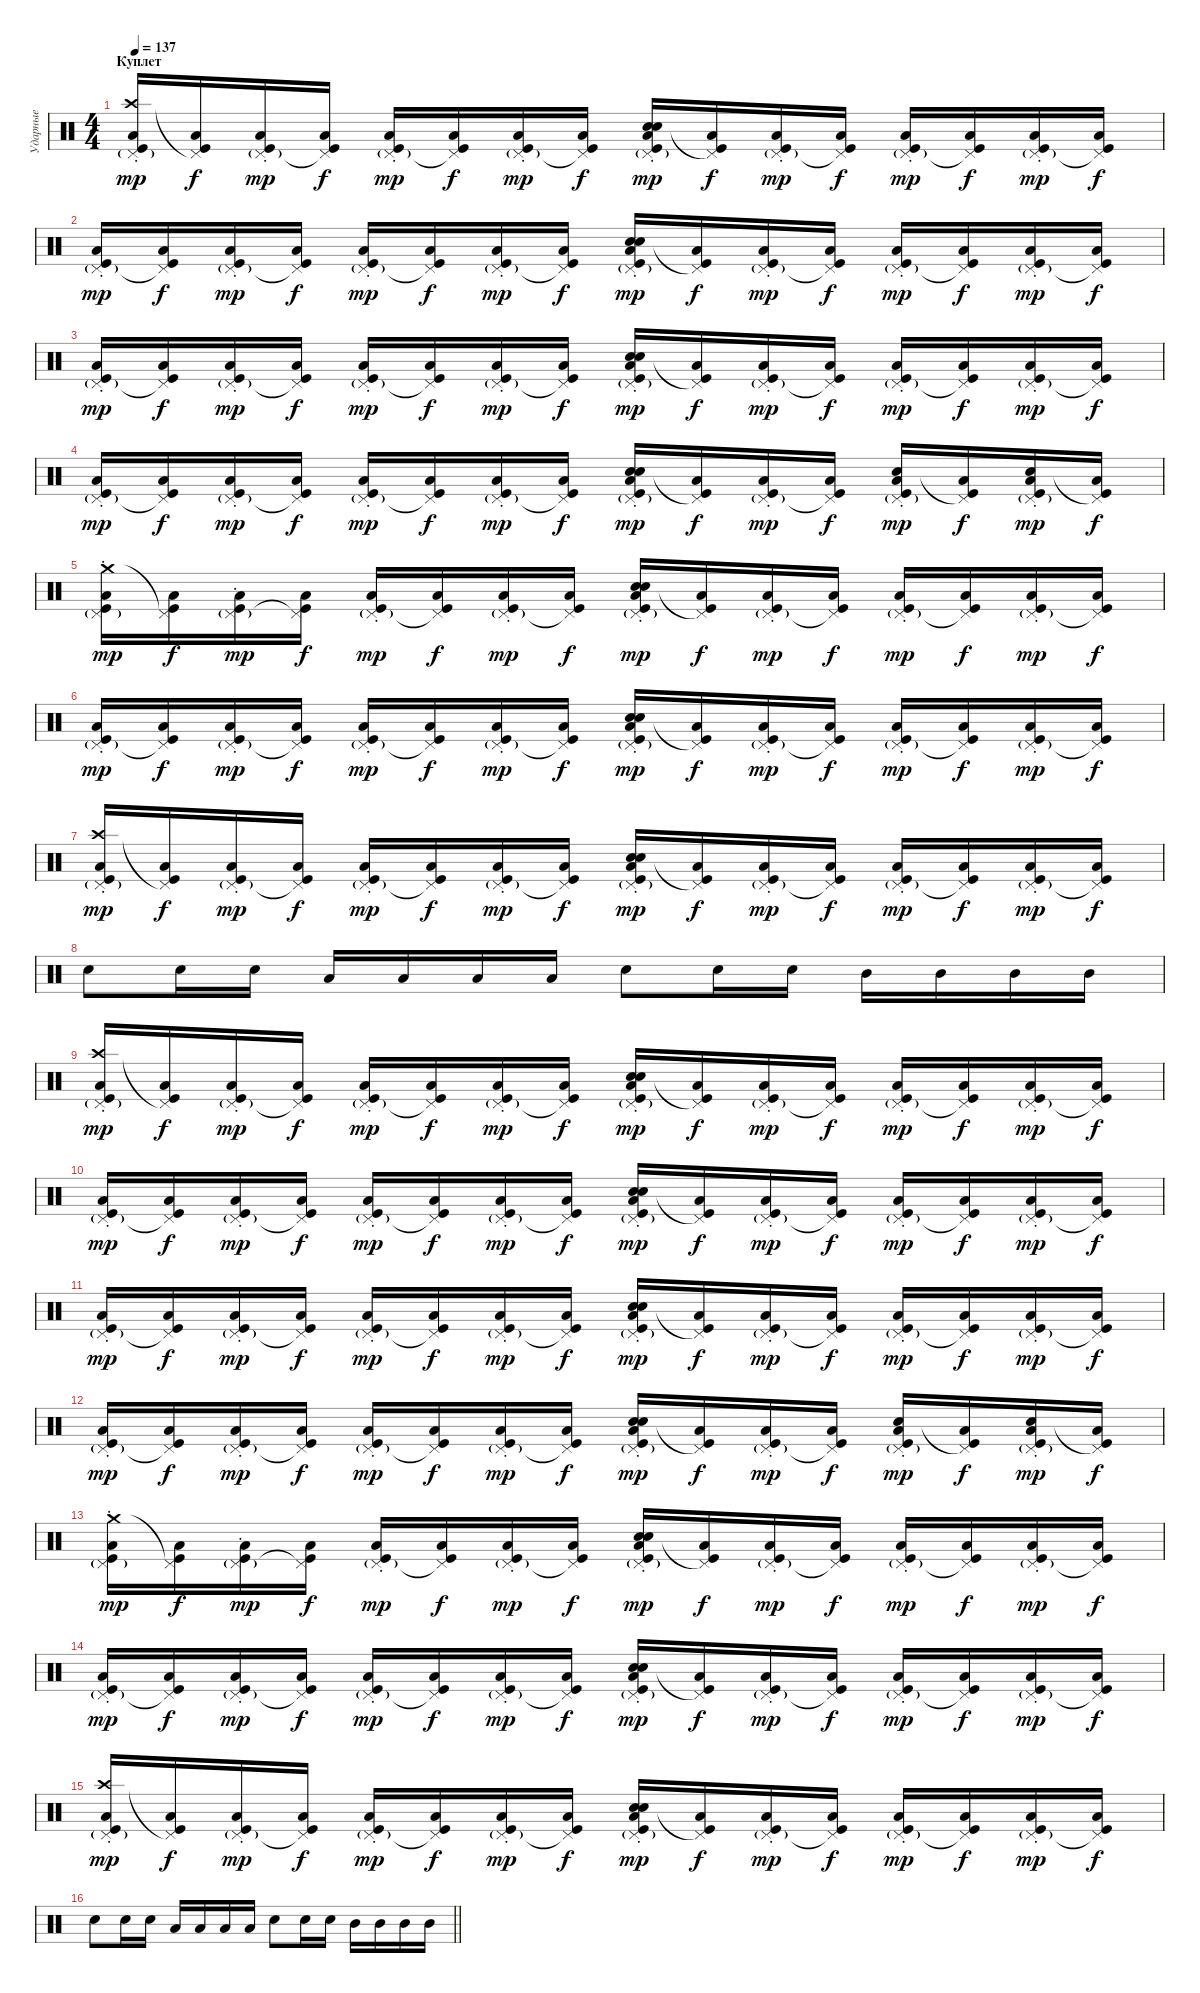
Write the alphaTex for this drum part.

\track ("Ударные" "Ударные") {instrument percussion}
\staff {score}
\articulation defaults
\ts (4 4)
\section ("" "Куплет")
\tempo 137
\clef neutral
\ks c
("Kick (hit)" "Low Tom (hit)" "Crash high (hit)" "Pedal Hi-Hat (hit)"{g st}).16{dy mp} ("Kick (hit)" "Low Tom (hit)" "Pedal Hi-Hat (hit)"{t}).16{dy f} ("Kick (hit)" "Low Tom (hit)" "Pedal Hi-Hat (hit)"{g st}).16{dy mp} ("Kick (hit)" "Low Tom (hit)" "Pedal Hi-Hat (hit)"{t}).16{dy f} ("Kick (hit)" "Low Tom (hit)" "Pedal Hi-Hat (hit)"{g st}).16{dy mp} ("Kick (hit)" "Low Tom (hit)" "Pedal Hi-Hat (hit)"{t}).16{dy f} ("Kick (hit)" "Low Tom (hit)" "Pedal Hi-Hat (hit)"{g st}).16{dy mp} ("Kick (hit)" "Low Tom (hit)" "Pedal Hi-Hat (hit)"{t}).16{dy f} ("Kick (hit)" "Low Tom (hit)" "Electric Snare (hit)" "Snare (hit) 2" "Pedal Hi-Hat (hit)"{g st}).16{dy mp} ("Kick (hit)" "Low Tom (hit)" "Pedal Hi-Hat (hit)"{t}).16{dy f} ("Kick (hit)" "Low Tom (hit)" "Pedal Hi-Hat (hit)"{g st}).16{dy mp} ("Kick (hit)" "Low Tom (hit)" "Pedal Hi-Hat (hit)"{t}).16{dy f} ("Kick (hit)" "Low Tom (hit)" "Pedal Hi-Hat (hit)"{g st}).16{dy mp} ("Kick (hit)" "Low Tom (hit)" "Pedal Hi-Hat (hit)"{t}).16{dy f} ("Kick (hit)" "Low Tom (hit)" "Pedal Hi-Hat (hit)"{g st}).16{dy mp} ("Kick (hit)" "Low Tom (hit)" "Pedal Hi-Hat (hit)"{t}).16{dy f} |
("Kick (hit)" "Low Tom (hit)" "Pedal Hi-Hat (hit)"{g st}).16{dy mp} ("Kick (hit)" "Low Tom (hit)" "Pedal Hi-Hat (hit)"{t}).16{dy f} ("Kick (hit)" "Low Tom (hit)" "Pedal Hi-Hat (hit)"{g st}).16{dy mp} ("Kick (hit)" "Low Tom (hit)" "Pedal Hi-Hat (hit)"{t}).16{dy f} ("Kick (hit)" "Low Tom (hit)" "Pedal Hi-Hat (hit)"{g st}).16{dy mp} ("Kick (hit)" "Low Tom (hit)" "Pedal Hi-Hat (hit)"{t}).16{dy f} ("Kick (hit)" "Low Tom (hit)" "Pedal Hi-Hat (hit)"{g st}).16{dy mp} ("Kick (hit)" "Low Tom (hit)" "Pedal Hi-Hat (hit)"{t}).16{dy f} ("Kick (hit)" "Low Tom (hit)" "Electric Snare (hit)" "Snare (hit) 2" "Pedal Hi-Hat (hit)"{g st}).16{dy mp} ("Kick (hit)" "Low Tom (hit)" "Pedal Hi-Hat (hit)"{t}).16{dy f} ("Kick (hit)" "Low Tom (hit)" "Pedal Hi-Hat (hit)"{g st}).16{dy mp} ("Kick (hit)" "Low Tom (hit)" "Pedal Hi-Hat (hit)"{t}).16{dy f} ("Kick (hit)" "Low Tom (hit)" "Pedal Hi-Hat (hit)"{g st}).16{dy mp} ("Kick (hit)" "Low Tom (hit)" "Pedal Hi-Hat (hit)"{t}).16{dy f} ("Kick (hit)" "Low Tom (hit)" "Pedal Hi-Hat (hit)"{g st}).16{dy mp} ("Kick (hit)" "Low Tom (hit)" "Pedal Hi-Hat (hit)"{t}).16{dy f} |
("Kick (hit)" "Low Tom (hit)" "Pedal Hi-Hat (hit)"{g st}).16{dy mp} ("Kick (hit)" "Low Tom (hit)" "Pedal Hi-Hat (hit)"{t}).16{dy f} ("Kick (hit)" "Low Tom (hit)" "Pedal Hi-Hat (hit)"{g st}).16{dy mp} ("Kick (hit)" "Low Tom (hit)" "Pedal Hi-Hat (hit)"{t}).16{dy f} ("Kick (hit)" "Low Tom (hit)" "Pedal Hi-Hat (hit)"{g st}).16{dy mp} ("Kick (hit)" "Low Tom (hit)" "Pedal Hi-Hat (hit)"{t}).16{dy f} ("Kick (hit)" "Low Tom (hit)" "Pedal Hi-Hat (hit)"{g st}).16{dy mp} ("Kick (hit)" "Low Tom (hit)" "Pedal Hi-Hat (hit)"{t}).16{dy f} ("Kick (hit)" "Low Tom (hit)" "Electric Snare (hit)" "Snare (hit) 2" "Pedal Hi-Hat (hit)"{g st}).16{dy mp} ("Kick (hit)" "Low Tom (hit)" "Pedal Hi-Hat (hit)"{t}).16{dy f} ("Kick (hit)" "Low Tom (hit)" "Pedal Hi-Hat (hit)"{g st}).16{dy mp} ("Kick (hit)" "Low Tom (hit)" "Pedal Hi-Hat (hit)"{t}).16{dy f} ("Kick (hit)" "Low Tom (hit)" "Pedal Hi-Hat (hit)"{g st}).16{dy mp} ("Kick (hit)" "Low Tom (hit)" "Pedal Hi-Hat (hit)"{t}).16{dy f} ("Kick (hit)" "Low Tom (hit)" "Pedal Hi-Hat (hit)"{g st}).16{dy mp} ("Kick (hit)" "Low Tom (hit)" "Pedal Hi-Hat (hit)"{t}).16{dy f} |
("Kick (hit)" "Low Tom (hit)" "Pedal Hi-Hat (hit)"{g st}).16{dy mp} ("Kick (hit)" "Low Tom (hit)" "Pedal Hi-Hat (hit)"{t}).16{dy f} ("Kick (hit)" "Low Tom (hit)" "Pedal Hi-Hat (hit)"{g st}).16{dy mp} ("Kick (hit)" "Low Tom (hit)" "Pedal Hi-Hat (hit)"{t}).16{dy f} ("Kick (hit)" "Low Tom (hit)" "Pedal Hi-Hat (hit)"{g st}).16{dy mp} ("Kick (hit)" "Low Tom (hit)" "Pedal Hi-Hat (hit)"{t}).16{dy f} ("Kick (hit)" "Low Tom (hit)" "Pedal Hi-Hat (hit)"{g st}).16{dy mp} ("Kick (hit)" "Low Tom (hit)" "Pedal Hi-Hat (hit)"{t}).16{dy f} ("Kick (hit)" "Low Tom (hit)" "Electric Snare (hit)" "Snare (hit) 2" "Pedal Hi-Hat (hit)"{g st}).16{dy mp} ("Kick (hit)" "Low Tom (hit)" "Pedal Hi-Hat (hit)"{t}).16{dy f} ("Kick (hit)" "Low Tom (hit)" "Pedal Hi-Hat (hit)"{g st}).16{dy mp} ("Kick (hit)" "Low Tom (hit)" "Pedal Hi-Hat (hit)"{t}).16{dy f} ("Kick (hit)" "Low Tom (hit)" "Electric Snare (hit)" "Pedal Hi-Hat (hit)"{g st}).16{dy mp} ("Kick (hit)" "Low Tom (hit)" "Pedal Hi-Hat (hit)"{t}).16{dy f} ("Kick (hit)" "Low Tom (hit)" "Electric Snare (hit)" "Pedal Hi-Hat (hit)"{g st}).16{dy mp} ("Kick (hit)" "Low Tom (hit)" "Pedal Hi-Hat (hit)"{t}).16{dy f} |
("Kick (hit)" "Low Tom (hit)" "Crash medium (hit)" "Pedal Hi-Hat (hit)"{g st}).16{dy mp} ("Kick (hit)" "Low Tom (hit)" "Pedal Hi-Hat (hit)"{t}).16{dy f} ("Kick (hit)" "Low Tom (hit)" "Pedal Hi-Hat (hit)"{g st}).16{dy mp} ("Kick (hit)" "Low Tom (hit)" "Pedal Hi-Hat (hit)"{t}).16{dy f} ("Kick (hit)" "Low Tom (hit)" "Pedal Hi-Hat (hit)"{g st}).16{dy mp} ("Kick (hit)" "Low Tom (hit)" "Pedal Hi-Hat (hit)"{t}).16{dy f} ("Kick (hit)" "Low Tom (hit)" "Pedal Hi-Hat (hit)"{g st}).16{dy mp} ("Kick (hit)" "Low Tom (hit)" "Pedal Hi-Hat (hit)"{t}).16{dy f} ("Kick (hit)" "Low Tom (hit)" "Electric Snare (hit)" "Snare (hit) 2" "Pedal Hi-Hat (hit)"{g st}).16{dy mp} ("Kick (hit)" "Low Tom (hit)" "Pedal Hi-Hat (hit)"{t}).16{dy f} ("Kick (hit)" "Low Tom (hit)" "Pedal Hi-Hat (hit)"{g st}).16{dy mp} ("Kick (hit)" "Low Tom (hit)" "Pedal Hi-Hat (hit)"{t}).16{dy f} ("Kick (hit)" "Low Tom (hit)" "Pedal Hi-Hat (hit)"{g st}).16{dy mp} ("Kick (hit)" "Low Tom (hit)" "Pedal Hi-Hat (hit)"{t}).16{dy f} ("Kick (hit)" "Low Tom (hit)" "Pedal Hi-Hat (hit)"{g st}).16{dy mp} ("Kick (hit)" "Low Tom (hit)" "Pedal Hi-Hat (hit)"{t}).16{dy f} |
("Kick (hit)" "Low Tom (hit)" "Pedal Hi-Hat (hit)"{g st}).16{dy mp} ("Kick (hit)" "Low Tom (hit)" "Pedal Hi-Hat (hit)"{t}).16{dy f} ("Kick (hit)" "Low Tom (hit)" "Pedal Hi-Hat (hit)"{g st}).16{dy mp} ("Kick (hit)" "Low Tom (hit)" "Pedal Hi-Hat (hit)"{t}).16{dy f} ("Kick (hit)" "Low Tom (hit)" "Pedal Hi-Hat (hit)"{g st}).16{dy mp} ("Kick (hit)" "Low Tom (hit)" "Pedal Hi-Hat (hit)"{t}).16{dy f} ("Kick (hit)" "Low Tom (hit)" "Pedal Hi-Hat (hit)"{g st}).16{dy mp} ("Kick (hit)" "Low Tom (hit)" "Pedal Hi-Hat (hit)"{t}).16{dy f} ("Kick (hit)" "Low Tom (hit)" "Electric Snare (hit)" "Snare (hit) 2" "Pedal Hi-Hat (hit)"{g st}).16{dy mp} ("Kick (hit)" "Low Tom (hit)" "Pedal Hi-Hat (hit)"{t}).16{dy f} ("Kick (hit)" "Low Tom (hit)" "Pedal Hi-Hat (hit)"{g st}).16{dy mp} ("Kick (hit)" "Low Tom (hit)" "Pedal Hi-Hat (hit)"{t}).16{dy f} ("Kick (hit)" "Low Tom (hit)" "Pedal Hi-Hat (hit)"{g st}).16{dy mp} ("Kick (hit)" "Low Tom (hit)" "Pedal Hi-Hat (hit)"{t}).16{dy f} ("Kick (hit)" "Low Tom (hit)" "Pedal Hi-Hat (hit)"{g st}).16{dy mp} ("Kick (hit)" "Low Tom (hit)" "Pedal Hi-Hat (hit)"{t}).16{dy f} |
("Kick (hit)" "Low Tom (hit)" "Crash high (hit)" "Pedal Hi-Hat (hit)"{g st}).16{dy mp} ("Kick (hit)" "Low Tom (hit)" "Pedal Hi-Hat (hit)"{t}).16{dy f} ("Kick (hit)" "Low Tom (hit)" "Pedal Hi-Hat (hit)"{g st}).16{dy mp} ("Kick (hit)" "Low Tom (hit)" "Pedal Hi-Hat (hit)"{t}).16{dy f} ("Kick (hit)" "Low Tom (hit)" "Pedal Hi-Hat (hit)"{g st}).16{dy mp} ("Kick (hit)" "Low Tom (hit)" "Pedal Hi-Hat (hit)"{t}).16{dy f} ("Kick (hit)" "Low Tom (hit)" "Pedal Hi-Hat (hit)"{g st}).16{dy mp} ("Kick (hit)" "Low Tom (hit)" "Pedal Hi-Hat (hit)"{t}).16{dy f} ("Kick (hit)" "Low Tom (hit)" "Electric Snare (hit)" "Snare (hit) 2" "Pedal Hi-Hat (hit)"{g st}).16{dy mp} ("Kick (hit)" "Low Tom (hit)" "Pedal Hi-Hat (hit)"{t}).16{dy f} ("Kick (hit)" "Low Tom (hit)" "Pedal Hi-Hat (hit)"{g st}).16{dy mp} ("Kick (hit)" "Low Tom (hit)" "Pedal Hi-Hat (hit)"{t}).16{dy f} ("Kick (hit)" "Low Tom (hit)" "Pedal Hi-Hat (hit)"{g st}).16{dy mp} ("Kick (hit)" "Low Tom (hit)" "Pedal Hi-Hat (hit)"{t}).16{dy f} ("Kick (hit)" "Low Tom (hit)" "Pedal Hi-Hat (hit)"{g st}).16{dy mp} ("Kick (hit)" "Low Tom (hit)" "Pedal Hi-Hat (hit)"{t}).16{dy f} |
"Electric Snare (hit)".8 "Electric Snare (hit)".16 "Electric Snare (hit)".16 "Low Tom (hit)".16 "Low Tom (hit)".16 "Low Tom (hit)".16 "Low Tom (hit)".16 "Electric Snare (hit)".8 "Electric Snare (hit)".16 "Electric Snare (hit)".16 "Mid Tom (hit)".16 "Mid Tom (hit)".16 "Mid Tom (hit)".16 "Mid Tom (hit)".16 |
("Kick (hit)" "Low Tom (hit)" "Crash high (hit)" "Pedal Hi-Hat (hit)"{g st}).16{dy mp} ("Kick (hit)" "Low Tom (hit)" "Pedal Hi-Hat (hit)"{t}).16{dy f} ("Kick (hit)" "Low Tom (hit)" "Pedal Hi-Hat (hit)"{g st}).16{dy mp} ("Kick (hit)" "Low Tom (hit)" "Pedal Hi-Hat (hit)"{t}).16{dy f} ("Kick (hit)" "Low Tom (hit)" "Pedal Hi-Hat (hit)"{g st}).16{dy mp} ("Kick (hit)" "Low Tom (hit)" "Pedal Hi-Hat (hit)"{t}).16{dy f} ("Kick (hit)" "Low Tom (hit)" "Pedal Hi-Hat (hit)"{g st}).16{dy mp} ("Kick (hit)" "Low Tom (hit)" "Pedal Hi-Hat (hit)"{t}).16{dy f} ("Kick (hit)" "Low Tom (hit)" "Electric Snare (hit)" "Snare (hit) 2" "Pedal Hi-Hat (hit)"{g st}).16{dy mp} ("Kick (hit)" "Low Tom (hit)" "Pedal Hi-Hat (hit)"{t}).16{dy f} ("Kick (hit)" "Low Tom (hit)" "Pedal Hi-Hat (hit)"{g st}).16{dy mp} ("Kick (hit)" "Low Tom (hit)" "Pedal Hi-Hat (hit)"{t}).16{dy f} ("Kick (hit)" "Low Tom (hit)" "Pedal Hi-Hat (hit)"{g st}).16{dy mp} ("Kick (hit)" "Low Tom (hit)" "Pedal Hi-Hat (hit)"{t}).16{dy f} ("Kick (hit)" "Low Tom (hit)" "Pedal Hi-Hat (hit)"{g st}).16{dy mp} ("Kick (hit)" "Low Tom (hit)" "Pedal Hi-Hat (hit)"{t}).16{dy f} |
("Kick (hit)" "Low Tom (hit)" "Pedal Hi-Hat (hit)"{g st}).16{dy mp} ("Kick (hit)" "Low Tom (hit)" "Pedal Hi-Hat (hit)"{t}).16{dy f} ("Kick (hit)" "Low Tom (hit)" "Pedal Hi-Hat (hit)"{g st}).16{dy mp} ("Kick (hit)" "Low Tom (hit)" "Pedal Hi-Hat (hit)"{t}).16{dy f} ("Kick (hit)" "Low Tom (hit)" "Pedal Hi-Hat (hit)"{g st}).16{dy mp} ("Kick (hit)" "Low Tom (hit)" "Pedal Hi-Hat (hit)"{t}).16{dy f} ("Kick (hit)" "Low Tom (hit)" "Pedal Hi-Hat (hit)"{g st}).16{dy mp} ("Kick (hit)" "Low Tom (hit)" "Pedal Hi-Hat (hit)"{t}).16{dy f} ("Kick (hit)" "Low Tom (hit)" "Electric Snare (hit)" "Snare (hit) 2" "Pedal Hi-Hat (hit)"{g st}).16{dy mp} ("Kick (hit)" "Low Tom (hit)" "Pedal Hi-Hat (hit)"{t}).16{dy f} ("Kick (hit)" "Low Tom (hit)" "Pedal Hi-Hat (hit)"{g st}).16{dy mp} ("Kick (hit)" "Low Tom (hit)" "Pedal Hi-Hat (hit)"{t}).16{dy f} ("Kick (hit)" "Low Tom (hit)" "Pedal Hi-Hat (hit)"{g st}).16{dy mp} ("Kick (hit)" "Low Tom (hit)" "Pedal Hi-Hat (hit)"{t}).16{dy f} ("Kick (hit)" "Low Tom (hit)" "Pedal Hi-Hat (hit)"{g st}).16{dy mp} ("Kick (hit)" "Low Tom (hit)" "Pedal Hi-Hat (hit)"{t}).16{dy f} |
("Kick (hit)" "Low Tom (hit)" "Pedal Hi-Hat (hit)"{g st}).16{dy mp} ("Kick (hit)" "Low Tom (hit)" "Pedal Hi-Hat (hit)"{t}).16{dy f} ("Kick (hit)" "Low Tom (hit)" "Pedal Hi-Hat (hit)"{g st}).16{dy mp} ("Kick (hit)" "Low Tom (hit)" "Pedal Hi-Hat (hit)"{t}).16{dy f} ("Kick (hit)" "Low Tom (hit)" "Pedal Hi-Hat (hit)"{g st}).16{dy mp} ("Kick (hit)" "Low Tom (hit)" "Pedal Hi-Hat (hit)"{t}).16{dy f} ("Kick (hit)" "Low Tom (hit)" "Pedal Hi-Hat (hit)"{g st}).16{dy mp} ("Kick (hit)" "Low Tom (hit)" "Pedal Hi-Hat (hit)"{t}).16{dy f} ("Kick (hit)" "Low Tom (hit)" "Electric Snare (hit)" "Snare (hit) 2" "Pedal Hi-Hat (hit)"{g st}).16{dy mp} ("Kick (hit)" "Low Tom (hit)" "Pedal Hi-Hat (hit)"{t}).16{dy f} ("Kick (hit)" "Low Tom (hit)" "Pedal Hi-Hat (hit)"{g st}).16{dy mp} ("Kick (hit)" "Low Tom (hit)" "Pedal Hi-Hat (hit)"{t}).16{dy f} ("Kick (hit)" "Low Tom (hit)" "Pedal Hi-Hat (hit)"{g st}).16{dy mp} ("Kick (hit)" "Low Tom (hit)" "Pedal Hi-Hat (hit)"{t}).16{dy f} ("Kick (hit)" "Low Tom (hit)" "Pedal Hi-Hat (hit)"{g st}).16{dy mp} ("Kick (hit)" "Low Tom (hit)" "Pedal Hi-Hat (hit)"{t}).16{dy f} |
("Kick (hit)" "Low Tom (hit)" "Pedal Hi-Hat (hit)"{g st}).16{dy mp} ("Kick (hit)" "Low Tom (hit)" "Pedal Hi-Hat (hit)"{t}).16{dy f} ("Kick (hit)" "Low Tom (hit)" "Pedal Hi-Hat (hit)"{g st}).16{dy mp} ("Kick (hit)" "Low Tom (hit)" "Pedal Hi-Hat (hit)"{t}).16{dy f} ("Kick (hit)" "Low Tom (hit)" "Pedal Hi-Hat (hit)"{g st}).16{dy mp} ("Kick (hit)" "Low Tom (hit)" "Pedal Hi-Hat (hit)"{t}).16{dy f} ("Kick (hit)" "Low Tom (hit)" "Pedal Hi-Hat (hit)"{g st}).16{dy mp} ("Kick (hit)" "Low Tom (hit)" "Pedal Hi-Hat (hit)"{t}).16{dy f} ("Kick (hit)" "Low Tom (hit)" "Electric Snare (hit)" "Snare (hit) 2" "Pedal Hi-Hat (hit)"{g st}).16{dy mp} ("Kick (hit)" "Low Tom (hit)" "Pedal Hi-Hat (hit)"{t}).16{dy f} ("Kick (hit)" "Low Tom (hit)" "Pedal Hi-Hat (hit)"{g st}).16{dy mp} ("Kick (hit)" "Low Tom (hit)" "Pedal Hi-Hat (hit)"{t}).16{dy f} ("Kick (hit)" "Low Tom (hit)" "Electric Snare (hit)" "Pedal Hi-Hat (hit)"{g st}).16{dy mp} ("Kick (hit)" "Low Tom (hit)" "Pedal Hi-Hat (hit)"{t}).16{dy f} ("Kick (hit)" "Low Tom (hit)" "Electric Snare (hit)" "Pedal Hi-Hat (hit)"{g st}).16{dy mp} ("Kick (hit)" "Low Tom (hit)" "Pedal Hi-Hat (hit)"{t}).16{dy f} |
("Kick (hit)" "Low Tom (hit)" "Crash medium (hit)" "Pedal Hi-Hat (hit)"{g st}).16{dy mp} ("Kick (hit)" "Low Tom (hit)" "Pedal Hi-Hat (hit)"{t}).16{dy f} ("Kick (hit)" "Low Tom (hit)" "Pedal Hi-Hat (hit)"{g st}).16{dy mp} ("Kick (hit)" "Low Tom (hit)" "Pedal Hi-Hat (hit)"{t}).16{dy f} ("Kick (hit)" "Low Tom (hit)" "Pedal Hi-Hat (hit)"{g st}).16{dy mp} ("Kick (hit)" "Low Tom (hit)" "Pedal Hi-Hat (hit)"{t}).16{dy f} ("Kick (hit)" "Low Tom (hit)" "Pedal Hi-Hat (hit)"{g st}).16{dy mp} ("Kick (hit)" "Low Tom (hit)" "Pedal Hi-Hat (hit)"{t}).16{dy f} ("Kick (hit)" "Low Tom (hit)" "Electric Snare (hit)" "Snare (hit) 2" "Pedal Hi-Hat (hit)"{g st}).16{dy mp} ("Kick (hit)" "Low Tom (hit)" "Pedal Hi-Hat (hit)"{t}).16{dy f} ("Kick (hit)" "Low Tom (hit)" "Pedal Hi-Hat (hit)"{g st}).16{dy mp} ("Kick (hit)" "Low Tom (hit)" "Pedal Hi-Hat (hit)"{t}).16{dy f} ("Kick (hit)" "Low Tom (hit)" "Pedal Hi-Hat (hit)"{g st}).16{dy mp} ("Kick (hit)" "Low Tom (hit)" "Pedal Hi-Hat (hit)"{t}).16{dy f} ("Kick (hit)" "Low Tom (hit)" "Pedal Hi-Hat (hit)"{g st}).16{dy mp} ("Kick (hit)" "Low Tom (hit)" "Pedal Hi-Hat (hit)"{t}).16{dy f} |
("Kick (hit)" "Low Tom (hit)" "Pedal Hi-Hat (hit)"{g st}).16{dy mp} ("Kick (hit)" "Low Tom (hit)" "Pedal Hi-Hat (hit)"{t}).16{dy f} ("Kick (hit)" "Low Tom (hit)" "Pedal Hi-Hat (hit)"{g st}).16{dy mp} ("Kick (hit)" "Low Tom (hit)" "Pedal Hi-Hat (hit)"{t}).16{dy f} ("Kick (hit)" "Low Tom (hit)" "Pedal Hi-Hat (hit)"{g st}).16{dy mp} ("Kick (hit)" "Low Tom (hit)" "Pedal Hi-Hat (hit)"{t}).16{dy f} ("Kick (hit)" "Low Tom (hit)" "Pedal Hi-Hat (hit)"{g st}).16{dy mp} ("Kick (hit)" "Low Tom (hit)" "Pedal Hi-Hat (hit)"{t}).16{dy f} ("Kick (hit)" "Low Tom (hit)" "Electric Snare (hit)" "Snare (hit) 2" "Pedal Hi-Hat (hit)"{g st}).16{dy mp} ("Kick (hit)" "Low Tom (hit)" "Pedal Hi-Hat (hit)"{t}).16{dy f} ("Kick (hit)" "Low Tom (hit)" "Pedal Hi-Hat (hit)"{g st}).16{dy mp} ("Kick (hit)" "Low Tom (hit)" "Pedal Hi-Hat (hit)"{t}).16{dy f} ("Kick (hit)" "Low Tom (hit)" "Pedal Hi-Hat (hit)"{g st}).16{dy mp} ("Kick (hit)" "Low Tom (hit)" "Pedal Hi-Hat (hit)"{t}).16{dy f} ("Kick (hit)" "Low Tom (hit)" "Pedal Hi-Hat (hit)"{g st}).16{dy mp} ("Kick (hit)" "Low Tom (hit)" "Pedal Hi-Hat (hit)"{t}).16{dy f} |
("Kick (hit)" "Low Tom (hit)" "Crash high (hit)" "Pedal Hi-Hat (hit)"{g st}).16{dy mp} ("Kick (hit)" "Low Tom (hit)" "Pedal Hi-Hat (hit)"{t}).16{dy f} ("Kick (hit)" "Low Tom (hit)" "Pedal Hi-Hat (hit)"{g st}).16{dy mp} ("Kick (hit)" "Low Tom (hit)" "Pedal Hi-Hat (hit)"{t}).16{dy f} ("Kick (hit)" "Low Tom (hit)" "Pedal Hi-Hat (hit)"{g st}).16{dy mp} ("Kick (hit)" "Low Tom (hit)" "Pedal Hi-Hat (hit)"{t}).16{dy f} ("Kick (hit)" "Low Tom (hit)" "Pedal Hi-Hat (hit)"{g st}).16{dy mp} ("Kick (hit)" "Low Tom (hit)" "Pedal Hi-Hat (hit)"{t}).16{dy f} ("Kick (hit)" "Low Tom (hit)" "Electric Snare (hit)" "Snare (hit) 2" "Pedal Hi-Hat (hit)"{g st}).16{dy mp} ("Kick (hit)" "Low Tom (hit)" "Pedal Hi-Hat (hit)"{t}).16{dy f} ("Kick (hit)" "Low Tom (hit)" "Pedal Hi-Hat (hit)"{g st}).16{dy mp} ("Kick (hit)" "Low Tom (hit)" "Pedal Hi-Hat (hit)"{t}).16{dy f} ("Kick (hit)" "Low Tom (hit)" "Pedal Hi-Hat (hit)"{g st}).16{dy mp} ("Kick (hit)" "Low Tom (hit)" "Pedal Hi-Hat (hit)"{t}).16{dy f} ("Kick (hit)" "Low Tom (hit)" "Pedal Hi-Hat (hit)"{g st}).16{dy mp} ("Kick (hit)" "Low Tom (hit)" "Pedal Hi-Hat (hit)"{t}).16{dy f} |
\barLineRight lightlight "Electric Snare (hit)".8 "Electric Snare (hit)".16 "Electric Snare (hit)".16 "Low Tom (hit)".16 "Low Tom (hit)".16 "Low Tom (hit)".16 "Low Tom (hit)".16 "Electric Snare (hit)".8 "Electric Snare (hit)".16 "Electric Snare (hit)".16 "Mid Tom (hit)".16 "Mid Tom (hit)".16 "Mid Tom (hit)".16 "Mid Tom (hit)".16
